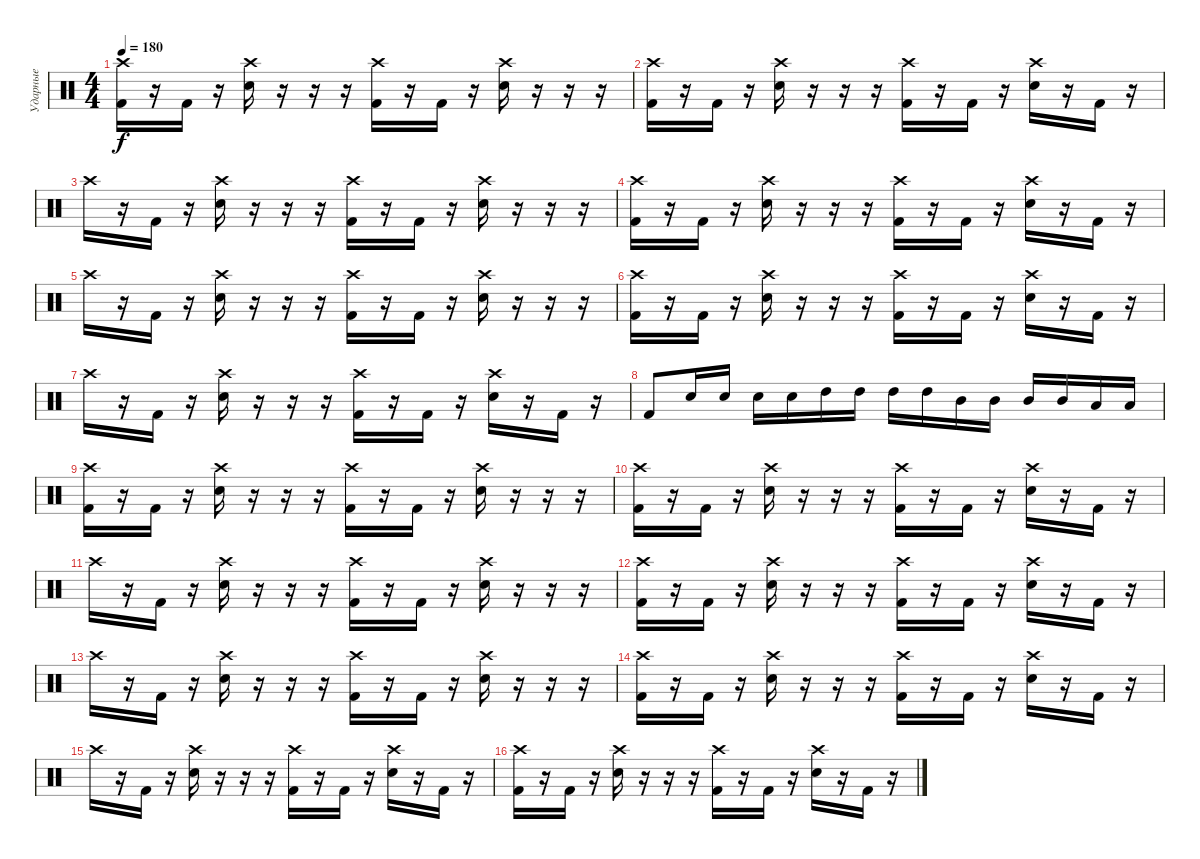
\track ("Ударные" "Ударные") {instrument percussion}
\staff {score}
\articulation defaults
\ts (4 4)
\tempo 180
\clef neutral
\ks c
("Crash high (hit)" "Kick (hit) 2").16{dy f} r.16 "Kick (hit) 2".16 r.16 ("Crash high (hit)" "Electric Snare (hit)").16 r.16 r.16 r.16 ("Crash high (hit)" "Kick (hit) 2").16 r.16 "Kick (hit) 2".16 r.16 ("Crash high (hit)" "Electric Snare (hit)").16 r.16 r.16 r.16 |
("Crash high (hit)" "Kick (hit) 2").16 r.16 "Kick (hit) 2".16 r.16 ("Crash high (hit)" "Electric Snare (hit)").16 r.16 r.16 r.16 ("Crash high (hit)" "Kick (hit) 2").16 r.16 "Kick (hit) 2".16 r.16 ("Crash high (hit)" "Electric Snare (hit)").16 r.16 "Kick (hit) 2".16 r.16 |
"Crash high (hit)".16 r.16 "Kick (hit) 2".16 r.16 ("Crash high (hit)" "Electric Snare (hit)").16 r.16 r.16 r.16 ("Crash high (hit)" "Kick (hit) 2").16 r.16 "Kick (hit) 2".16 r.16 ("Crash high (hit)" "Electric Snare (hit)").16 r.16 r.16 r.16 |
("Crash high (hit)" "Kick (hit) 2").16 r.16 "Kick (hit) 2".16 r.16 ("Crash high (hit)" "Electric Snare (hit)").16 r.16 r.16 r.16 ("Crash high (hit)" "Kick (hit) 2").16 r.16 "Kick (hit) 2".16 r.16 ("Crash high (hit)" "Electric Snare (hit)").16 r.16 "Kick (hit) 2".16 r.16 |
"Crash high (hit)".16 r.16 "Kick (hit) 2".16 r.16 ("Crash high (hit)" "Electric Snare (hit)").16 r.16 r.16 r.16 ("Crash high (hit)" "Kick (hit) 2").16 r.16 "Kick (hit) 2".16 r.16 ("Crash high (hit)" "Electric Snare (hit)").16 r.16 r.16 r.16 |
("Crash high (hit)" "Kick (hit) 2").16 r.16 "Kick (hit) 2".16 r.16 ("Crash high (hit)" "Electric Snare (hit)").16 r.16 r.16 r.16 ("Crash high (hit)" "Kick (hit) 2").16 r.16 "Kick (hit) 2".16 r.16 ("Crash high (hit)" "Electric Snare (hit)").16 r.16 "Kick (hit) 2".16 r.16 |
"Crash high (hit)".16 r.16 "Kick (hit) 2".16 r.16 ("Crash high (hit)" "Electric Snare (hit)").16 r.16 r.16 r.16 ("Crash high (hit)" "Kick (hit) 2").16 r.16 "Kick (hit) 2".16 r.16 ("Crash high (hit)" "Electric Snare (hit)").16 r.16 "Kick (hit) 2".16 r.16 |
"Kick (hit) 2".8 "Electric Snare (hit)".16 "Electric Snare (hit)".16 "Electric Snare (hit)".16 "Electric Snare (hit)".16 "High Tom (hit)".16 "High Tom (hit)".16 "High Tom (hit)".16 "High Tom (hit)".16 "Mid Tom (hit)".16 "Mid Tom (hit)".16 "Mid Tom (hit)".16 "Mid Tom (hit)".16 "Low Tom (hit)".16 "Low Tom (hit)".16 |
("Crash high (hit)" "Kick (hit) 2").16 r.16 "Kick (hit) 2".16 r.16 ("Crash high (hit)" "Electric Snare (hit)").16 r.16 r.16 r.16 ("Crash high (hit)" "Kick (hit) 2").16 r.16 "Kick (hit) 2".16 r.16 ("Crash high (hit)" "Electric Snare (hit)").16 r.16 r.16 r.16 |
("Crash high (hit)" "Kick (hit) 2").16 r.16 "Kick (hit) 2".16 r.16 ("Crash high (hit)" "Electric Snare (hit)").16 r.16 r.16 r.16 ("Crash high (hit)" "Kick (hit) 2").16 r.16 "Kick (hit) 2".16 r.16 ("Crash high (hit)" "Electric Snare (hit)").16 r.16 "Kick (hit) 2".16 r.16 |
"Crash high (hit)".16 r.16 "Kick (hit) 2".16 r.16 ("Crash high (hit)" "Electric Snare (hit)").16 r.16 r.16 r.16 ("Crash high (hit)" "Kick (hit) 2").16 r.16 "Kick (hit) 2".16 r.16 ("Crash high (hit)" "Electric Snare (hit)").16 r.16 r.16 r.16 |
("Crash high (hit)" "Kick (hit) 2").16 r.16 "Kick (hit) 2".16 r.16 ("Crash high (hit)" "Electric Snare (hit)").16 r.16 r.16 r.16 ("Crash high (hit)" "Kick (hit) 2").16 r.16 "Kick (hit) 2".16 r.16 ("Crash high (hit)" "Electric Snare (hit)").16 r.16 "Kick (hit) 2".16 r.16 |
"Crash high (hit)".16 r.16 "Kick (hit) 2".16 r.16 ("Crash high (hit)" "Electric Snare (hit)").16 r.16 r.16 r.16 ("Crash high (hit)" "Kick (hit) 2").16 r.16 "Kick (hit) 2".16 r.16 ("Crash high (hit)" "Electric Snare (hit)").16 r.16 r.16 r.16 |
("Crash high (hit)" "Kick (hit) 2").16 r.16 "Kick (hit) 2".16 r.16 ("Crash high (hit)" "Electric Snare (hit)").16 r.16 r.16 r.16 ("Crash high (hit)" "Kick (hit) 2").16 r.16 "Kick (hit) 2".16 r.16 ("Crash high (hit)" "Electric Snare (hit)").16 r.16 "Kick (hit) 2".16 r.16 |
"Crash high (hit)".16 r.16 "Kick (hit) 2".16 r.16 ("Crash high (hit)" "Electric Snare (hit)").16 r.16 r.16 r.16 ("Crash high (hit)" "Kick (hit) 2").16 r.16 "Kick (hit) 2".16 r.16 ("Crash high (hit)" "Electric Snare (hit)").16 r.16 "Kick (hit) 2".16 r.16 |
("Crash high (hit)" "Kick (hit) 2").16 r.16 "Kick (hit) 2".16 r.16 ("Crash high (hit)" "Electric Snare (hit)").16 r.16 r.16 r.16 ("Crash high (hit)" "Kick (hit) 2").16 r.16 "Kick (hit) 2".16 r.16 ("Crash high (hit)" "Electric Snare (hit)").16 r.16 "Kick (hit) 2".16 r.16
